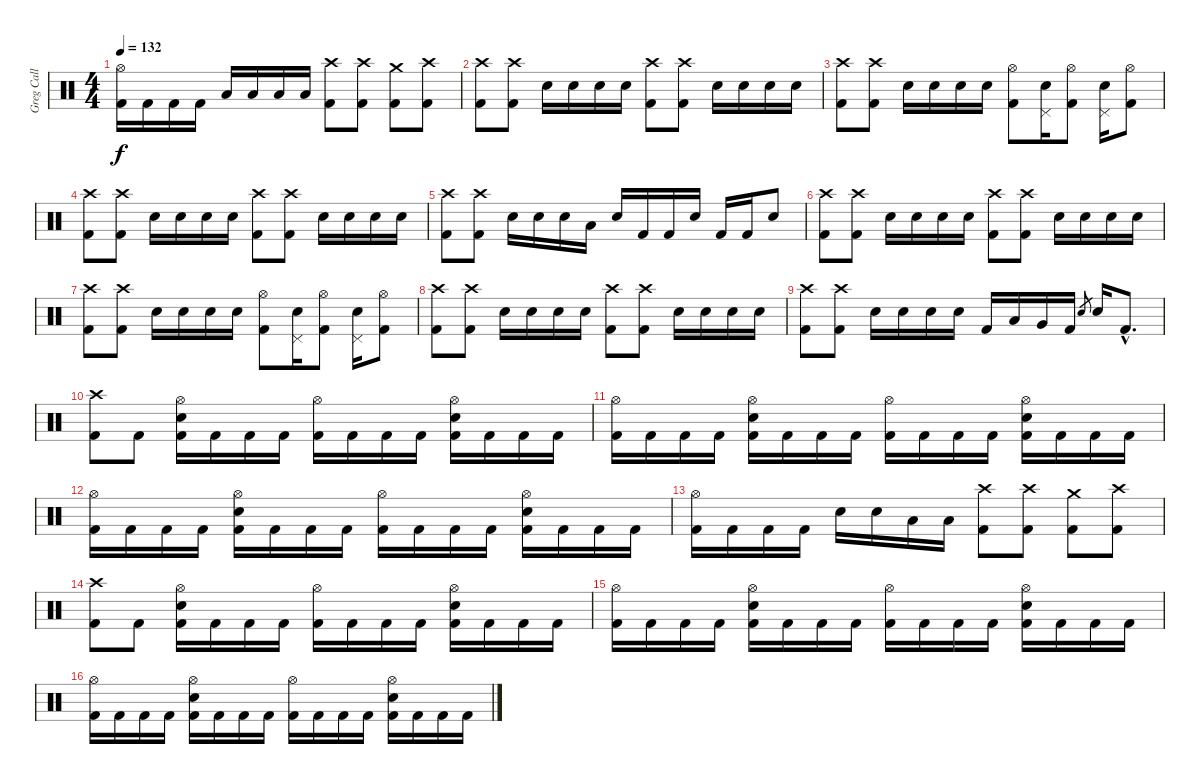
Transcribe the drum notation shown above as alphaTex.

\track ("Greg Call (Drums)" "Greg Call ") {instrument percussion}
\staff {score}
\articulation defaults
\ts (4 4)
\tempo 132
\clef neutral
\ks c
("Hi-Hat (open)" "Kick (hit) 2").16{dy f} "Kick (hit) 2".16 "Kick (hit) 2".16 "Kick (hit) 2".16 "Low Tom (hit)".16 "Low Tom (hit)".16 "Low Tom (hit)".16 "Low Tom (hit)".16 ("Crash high (hit)" "Kick (hit) 2").8 ("Crash high (hit)" "Kick (hit) 2").8 ("Crash medium (hit)" "Kick (hit) 2").8 ("Crash high (hit)" "Kick (hit) 2").8 |
("Crash high (hit)" "Kick (hit) 2").8 ("Crash high (hit)" "Kick (hit) 2").8 "Snare (hit) 2".16 "Snare (hit) 2".16 "Snare (hit) 2".16 "Snare (hit) 2".16 ("Crash high (hit)" "Kick (hit) 2").8 ("Crash high (hit)" "Kick (hit) 2").8 "Snare (hit) 2".16 "Snare (hit) 2".16 "Snare (hit) 2".16 "Snare (hit) 2".16 |
("Crash high (hit)" "Kick (hit) 2").8 ("Crash high (hit)" "Kick (hit) 2").8 "Snare (hit) 2".16 "Snare (hit) 2".16 "Snare (hit) 2".16 "Snare (hit) 2".16 ("Hi-Hat (open)" "Kick (hit) 2").8 ("Pedal Hi-Hat (hit)" "Snare (hit) 2").16 ("Hi-Hat (open)" "Kick (hit) 2").8 ("Pedal Hi-Hat (hit)" "Snare (hit) 2").16 ("Hi-Hat (open)" "Kick (hit) 2").8 |
("Crash high (hit)" "Kick (hit) 2").8 ("Crash high (hit)" "Kick (hit) 2").8 "Snare (hit) 2".16 "Snare (hit) 2".16 "Snare (hit) 2".16 "Snare (hit) 2".16 ("Crash high (hit)" "Kick (hit) 2").8 ("Crash high (hit)" "Kick (hit) 2").8 "Snare (hit) 2".16 "Snare (hit) 2".16 "Snare (hit) 2".16 "Snare (hit) 2".16 |
("Crash high (hit)" "Kick (hit) 2").8 ("Crash high (hit)" "Kick (hit) 2").8 "Snare (hit) 2".16 "Snare (hit) 2".16 "Snare (hit) 2".16 "Low Tom (hit)".16 "Snare (hit) 2".16 "Kick (hit) 2".16 "Kick (hit) 2".16 "Snare (hit) 2".16 "Kick (hit) 2".16 "Kick (hit) 2".16 "Snare (hit) 2".8 |
("Crash high (hit)" "Kick (hit) 2").8 ("Crash high (hit)" "Kick (hit) 2").8 "Snare (hit) 2".16 "Snare (hit) 2".16 "Snare (hit) 2".16 "Snare (hit) 2".16 ("Crash high (hit)" "Kick (hit) 2").8 ("Crash high (hit)" "Kick (hit) 2").8 "Snare (hit) 2".16 "Snare (hit) 2".16 "Snare (hit) 2".16 "Snare (hit) 2".16 |
("Crash high (hit)" "Kick (hit) 2").8 ("Crash high (hit)" "Kick (hit) 2").8 "Snare (hit) 2".16 "Snare (hit) 2".16 "Snare (hit) 2".16 "Snare (hit) 2".16 ("Hi-Hat (open)" "Kick (hit) 2").8 ("Pedal Hi-Hat (hit)" "Snare (hit) 2").16 ("Hi-Hat (open)" "Kick (hit) 2").8 ("Pedal Hi-Hat (hit)" "Snare (hit) 2").16 ("Hi-Hat (open)" "Kick (hit) 2").8 |
("Crash high (hit)" "Kick (hit) 2").8 ("Crash high (hit)" "Kick (hit) 2").8 "Snare (hit) 2".16 "Snare (hit) 2".16 "Snare (hit) 2".16 "Snare (hit) 2".16 ("Crash high (hit)" "Kick (hit) 2").8 ("Crash high (hit)" "Kick (hit) 2").8 "Snare (hit) 2".16 "Snare (hit) 2".16 "Snare (hit) 2".16 "Snare (hit) 2".16 |
("Crash high (hit)" "Kick (hit) 2").8 ("Crash high (hit)" "Kick (hit) 2").8 "Snare (hit) 2".16 "Snare (hit) 2".16 "Snare (hit) 2".16 "Snare (hit) 2".16 "Kick (hit) 2".16 "Low Tom (hit)".16 "Very Low Tom (hit)".16 "Kick (hit) 2".16 "Snare (hit) 2".8{gr} "Snare (hit) 2".16 "Kick (hit) 2"{hac}.8{d} |
("Crash high (hit)" "Kick (hit) 2").8 "Kick (hit) 2".8 ("Hi-Hat (open)" "Snare (hit) 2" "Kick (hit) 2").16 "Kick (hit) 2".16 "Kick (hit) 2".16 "Kick (hit) 2".16 ("Hi-Hat (open)" "Kick (hit) 2").16 "Kick (hit) 2".16 "Kick (hit) 2".16 "Kick (hit) 2".16 ("Hi-Hat (open)" "Snare (hit) 2" "Kick (hit) 2").16 "Kick (hit) 2".16 "Kick (hit) 2".16 "Kick (hit) 2".16 |
("Hi-Hat (open)" "Kick (hit) 2").16 "Kick (hit) 2".16 "Kick (hit) 2".16 "Kick (hit) 2".16 ("Hi-Hat (open)" "Snare (hit) 2" "Kick (hit) 2").16 "Kick (hit) 2".16 "Kick (hit) 2".16 "Kick (hit) 2".16 ("Hi-Hat (open)" "Kick (hit) 2").16 "Kick (hit) 2".16 "Kick (hit) 2".16 "Kick (hit) 2".16 ("Hi-Hat (open)" "Snare (hit) 2" "Kick (hit) 2").16 "Kick (hit) 2".16 "Kick (hit) 2".16 "Kick (hit) 2".16 |
("Hi-Hat (open)" "Kick (hit) 2").16 "Kick (hit) 2".16 "Kick (hit) 2".16 "Kick (hit) 2".16 ("Hi-Hat (open)" "Snare (hit) 2" "Kick (hit) 2").16 "Kick (hit) 2".16 "Kick (hit) 2".16 "Kick (hit) 2".16 ("Hi-Hat (open)" "Kick (hit) 2").16 "Kick (hit) 2".16 "Kick (hit) 2".16 "Kick (hit) 2".16 ("Hi-Hat (open)" "Snare (hit) 2" "Kick (hit) 2").16 "Kick (hit) 2".16 "Kick (hit) 2".16 "Kick (hit) 2".16 |
("Hi-Hat (open)" "Kick (hit) 2").16 "Kick (hit) 2".16 "Kick (hit) 2".16 "Kick (hit) 2".16 "Snare (hit) 2".16 "Snare (hit) 2".16 "Low Tom (hit)".16 "Low Floor Tom (hit)".16 ("Crash high (hit)" "Kick (hit) 2").8 ("Crash high (hit)" "Kick (hit) 2").8 ("Crash medium (hit)" "Kick (hit) 2").8 ("Crash high (hit)" "Kick (hit) 2").8 |
("Crash high (hit)" "Kick (hit) 2").8 "Kick (hit) 2".8 ("Hi-Hat (open)" "Snare (hit) 2" "Kick (hit) 2").16 "Kick (hit) 2".16 "Kick (hit) 2".16 "Kick (hit) 2".16 ("Hi-Hat (open)" "Kick (hit) 2").16 "Kick (hit) 2".16 "Kick (hit) 2".16 "Kick (hit) 2".16 ("Hi-Hat (open)" "Snare (hit) 2" "Kick (hit) 2").16 "Kick (hit) 2".16 "Kick (hit) 2".16 "Kick (hit) 2".16 |
("Hi-Hat (open)" "Kick (hit) 2").16 "Kick (hit) 2".16 "Kick (hit) 2".16 "Kick (hit) 2".16 ("Hi-Hat (open)" "Snare (hit) 2" "Kick (hit) 2").16 "Kick (hit) 2".16 "Kick (hit) 2".16 "Kick (hit) 2".16 ("Hi-Hat (open)" "Kick (hit) 2").16 "Kick (hit) 2".16 "Kick (hit) 2".16 "Kick (hit) 2".16 ("Hi-Hat (open)" "Snare (hit) 2" "Kick (hit) 2").16 "Kick (hit) 2".16 "Kick (hit) 2".16 "Kick (hit) 2".16 |
("Hi-Hat (open)" "Kick (hit) 2").16 "Kick (hit) 2".16 "Kick (hit) 2".16 "Kick (hit) 2".16 ("Hi-Hat (open)" "Snare (hit) 2" "Kick (hit) 2").16 "Kick (hit) 2".16 "Kick (hit) 2".16 "Kick (hit) 2".16 ("Hi-Hat (open)" "Kick (hit) 2").16 "Kick (hit) 2".16 "Kick (hit) 2".16 "Kick (hit) 2".16 ("Hi-Hat (open)" "Snare (hit) 2" "Kick (hit) 2").16 "Kick (hit) 2".16 "Kick (hit) 2".16 "Kick (hit) 2".16
